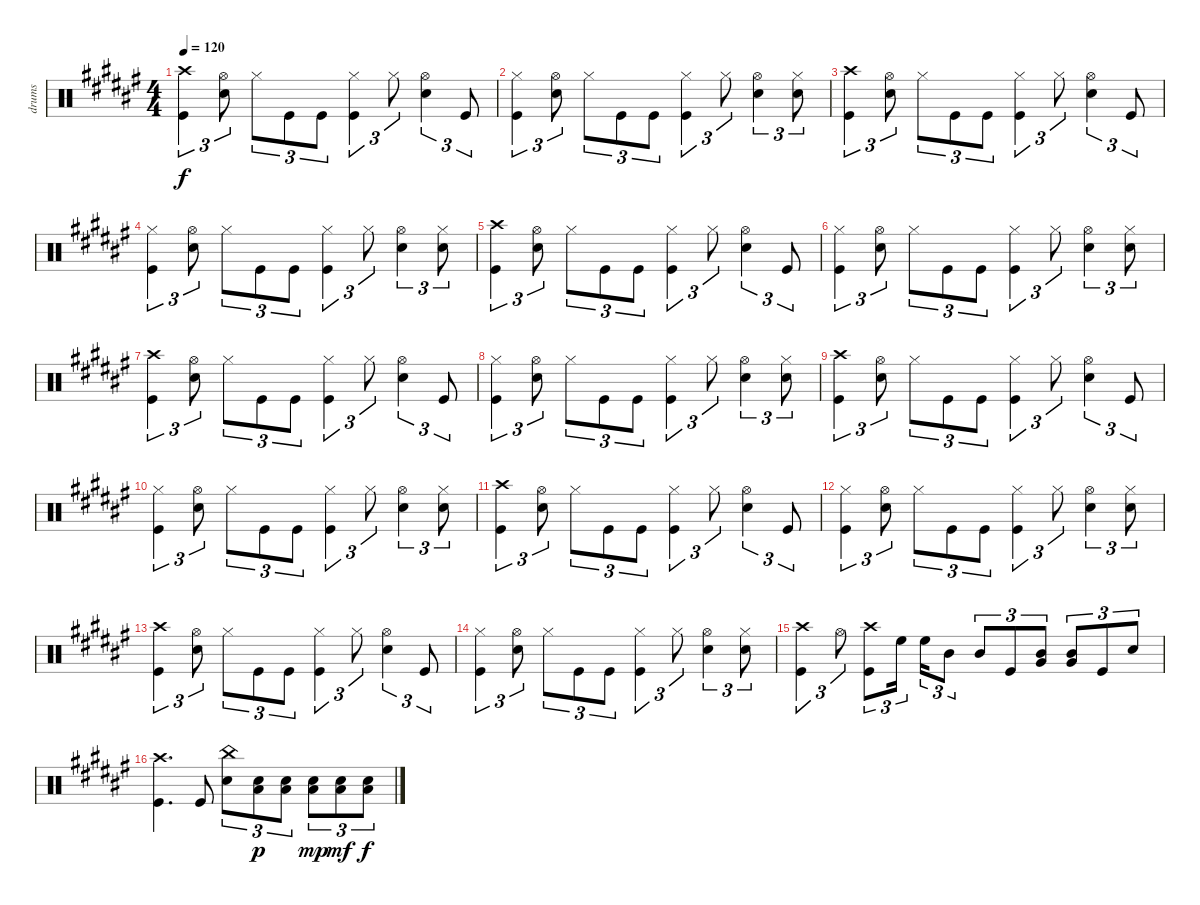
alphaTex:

\track ("drums" "drums") {instrument percussion}
\staff {score}
\articulation defaults
\ts (4 4)
\tempo 120
\clef neutral
\ks f#
("Crash high (hit)" "Kick (hit)").4{tu (3 2) dy f} ("Hi-Hat (open)" "Snare (hit) 2").8{tu (3 2)} "Hi-Hat (closed)".8{tu (3 2)} "Kick (hit)".8{tu (3 2)} "Kick (hit)".8{tu (3 2)} ("Hi-Hat (closed)" "Kick (hit)").4{tu (3 2)} "Hi-Hat (closed)".8{tu (3 2)} ("Hi-Hat (open)" "Snare (hit) 2").4{tu (3 2)} "Kick (hit)".8{tu (3 2)} |
("Hi-Hat (closed)" "Kick (hit)").4{tu (3 2)} ("Hi-Hat (open)" "Snare (hit) 2").8{tu (3 2)} "Hi-Hat (closed)".8{tu (3 2)} "Kick (hit)".8{tu (3 2)} "Kick (hit)".8{tu (3 2)} ("Hi-Hat (closed)" "Kick (hit)").4{tu (3 2)} "Hi-Hat (closed)".8{tu (3 2)} ("Hi-Hat (open)" "Snare (hit) 2").4{tu (3 2)} ("Hi-Hat (closed)" "Snare (hit) 2").8{tu (3 2)} |
("Crash high (hit)" "Kick (hit)").4{tu (3 2)} ("Hi-Hat (open)" "Snare (hit) 2").8{tu (3 2)} "Hi-Hat (closed)".8{tu (3 2)} "Kick (hit)".8{tu (3 2)} "Kick (hit)".8{tu (3 2)} ("Hi-Hat (closed)" "Kick (hit)").4{tu (3 2)} "Hi-Hat (closed)".8{tu (3 2)} ("Hi-Hat (open)" "Snare (hit) 2").4{tu (3 2)} "Kick (hit)".8{tu (3 2)} |
("Hi-Hat (closed)" "Kick (hit)").4{tu (3 2)} ("Hi-Hat (open)" "Snare (hit) 2").8{tu (3 2)} "Hi-Hat (closed)".8{tu (3 2)} "Kick (hit)".8{tu (3 2)} "Kick (hit)".8{tu (3 2)} ("Hi-Hat (closed)" "Kick (hit)").4{tu (3 2)} "Hi-Hat (closed)".8{tu (3 2)} ("Hi-Hat (open)" "Snare (hit) 2").4{tu (3 2)} ("Hi-Hat (closed)" "Snare (hit) 2").8{tu (3 2)} |
("Crash high (hit)" "Kick (hit)").4{tu (3 2)} ("Hi-Hat (open)" "Snare (hit) 2").8{tu (3 2)} "Hi-Hat (closed)".8{tu (3 2)} "Kick (hit)".8{tu (3 2)} "Kick (hit)".8{tu (3 2)} ("Hi-Hat (closed)" "Kick (hit)").4{tu (3 2)} "Hi-Hat (closed)".8{tu (3 2)} ("Hi-Hat (open)" "Snare (hit) 2").4{tu (3 2)} "Kick (hit)".8{tu (3 2)} |
("Hi-Hat (closed)" "Kick (hit)").4{tu (3 2)} ("Hi-Hat (open)" "Snare (hit) 2").8{tu (3 2)} "Hi-Hat (closed)".8{tu (3 2)} "Kick (hit)".8{tu (3 2)} "Kick (hit)".8{tu (3 2)} ("Hi-Hat (closed)" "Kick (hit)").4{tu (3 2)} "Hi-Hat (closed)".8{tu (3 2)} ("Hi-Hat (open)" "Snare (hit) 2").4{tu (3 2)} ("Hi-Hat (closed)" "Snare (hit) 2").8{tu (3 2)} |
("Crash high (hit)" "Kick (hit)").4{tu (3 2)} ("Hi-Hat (open)" "Snare (hit) 2").8{tu (3 2)} "Hi-Hat (closed)".8{tu (3 2)} "Kick (hit)".8{tu (3 2)} "Kick (hit)".8{tu (3 2)} ("Hi-Hat (closed)" "Kick (hit)").4{tu (3 2)} "Hi-Hat (closed)".8{tu (3 2)} ("Hi-Hat (open)" "Snare (hit) 2").4{tu (3 2)} "Kick (hit)".8{tu (3 2)} |
("Hi-Hat (closed)" "Kick (hit)").4{tu (3 2)} ("Hi-Hat (open)" "Snare (hit) 2").8{tu (3 2)} "Hi-Hat (closed)".8{tu (3 2)} "Kick (hit)".8{tu (3 2)} "Kick (hit)".8{tu (3 2)} ("Hi-Hat (closed)" "Kick (hit)").4{tu (3 2)} "Hi-Hat (closed)".8{tu (3 2)} ("Hi-Hat (open)" "Snare (hit) 2").4{tu (3 2)} ("Hi-Hat (closed)" "Snare (hit) 2").8{tu (3 2)} |
("Crash high (hit)" "Kick (hit)").4{tu (3 2)} ("Hi-Hat (open)" "Snare (hit) 2").8{tu (3 2)} "Hi-Hat (closed)".8{tu (3 2)} "Kick (hit)".8{tu (3 2)} "Kick (hit)".8{tu (3 2)} ("Hi-Hat (closed)" "Kick (hit)").4{tu (3 2)} "Hi-Hat (closed)".8{tu (3 2)} ("Hi-Hat (open)" "Snare (hit) 2").4{tu (3 2)} "Kick (hit)".8{tu (3 2)} |
("Hi-Hat (closed)" "Kick (hit)").4{tu (3 2)} ("Hi-Hat (open)" "Snare (hit) 2").8{tu (3 2)} "Hi-Hat (closed)".8{tu (3 2)} "Kick (hit)".8{tu (3 2)} "Kick (hit)".8{tu (3 2)} ("Hi-Hat (closed)" "Kick (hit)").4{tu (3 2)} "Hi-Hat (closed)".8{tu (3 2)} ("Hi-Hat (open)" "Snare (hit) 2").4{tu (3 2)} ("Hi-Hat (closed)" "Snare (hit) 2").8{tu (3 2)} |
("Crash high (hit)" "Kick (hit)").4{tu (3 2)} ("Hi-Hat (open)" "Snare (hit) 2").8{tu (3 2)} "Hi-Hat (closed)".8{tu (3 2)} "Kick (hit)".8{tu (3 2)} "Kick (hit)".8{tu (3 2)} ("Hi-Hat (closed)" "Kick (hit)").4{tu (3 2)} "Hi-Hat (closed)".8{tu (3 2)} ("Hi-Hat (open)" "Snare (hit) 2").4{tu (3 2)} "Kick (hit)".8{tu (3 2)} |
("Hi-Hat (closed)" "Kick (hit)").4{tu (3 2)} ("Hi-Hat (open)" "Snare (hit) 2").8{tu (3 2)} "Hi-Hat (closed)".8{tu (3 2)} "Kick (hit)".8{tu (3 2)} "Kick (hit)".8{tu (3 2)} ("Hi-Hat (closed)" "Kick (hit)").4{tu (3 2)} "Hi-Hat (closed)".8{tu (3 2)} ("Hi-Hat (open)" "Snare (hit) 2").4{tu (3 2)} ("Hi-Hat (closed)" "Snare (hit) 2").8{tu (3 2)} |
("Crash high (hit)" "Kick (hit)").4{tu (3 2)} ("Hi-Hat (open)" "Snare (hit) 2").8{tu (3 2)} "Hi-Hat (closed)".8{tu (3 2)} "Kick (hit)".8{tu (3 2)} "Kick (hit)".8{tu (3 2)} ("Hi-Hat (closed)" "Kick (hit)").4{tu (3 2)} "Hi-Hat (closed)".8{tu (3 2)} ("Hi-Hat (open)" "Snare (hit) 2").4{tu (3 2)} "Kick (hit)".8{tu (3 2)} |
("Hi-Hat (closed)" "Kick (hit)").4{tu (3 2)} ("Hi-Hat (open)" "Snare (hit) 2").8{tu (3 2)} "Hi-Hat (closed)".8{tu (3 2)} "Kick (hit)".8{tu (3 2)} "Kick (hit)".8{tu (3 2)} ("Hi-Hat (closed)" "Kick (hit)").4{tu (3 2)} "Hi-Hat (closed)".8{tu (3 2)} ("Hi-Hat (open)" "Snare (hit) 2").4{tu (3 2)} ("Hi-Hat (closed)" "Snare (hit) 2").8{tu (3 2)} |
("Crash high (hit)" "Kick (hit)").4{tu (3 2)} "Hi-Hat (open)".8{tu (3 2)} ("Crash high (hit)" "Kick (hit)").8{tu (3 2)} "High Floor Tom (hit)".16{tu (3 2) beam splitsecondary} "High Floor Tom (hit)".16{tu (3 2)} "Mid Tom (hit)".8{tu (3 2)} "Mid Tom (hit)".8{tu (3 2)} "Kick (hit)".8{tu (3 2)} ("Mid Tom (hit)" "Very Low Tom (hit)").8{tu (3 2)} ("Mid Tom (hit)" "Very Low Tom (hit)").8{tu (3 2)} "Kick (hit)".8{tu (3 2)} "Snare (hit) 2".8{tu (3 2)} |
("Crash high (hit)" "Kick (hit)").4{d} "Kick (hit)".8 ("China (hit)" "Snare (hit) 2").8{tu (3 2)} ("Low Floor Tom (hit)" "Snare (hit) 2").8{tu (3 2) dy p} ("Low Floor Tom (hit)" "Snare (hit) 2").8{tu (3 2)} ("Low Floor Tom (hit)" "Snare (hit) 2").8{tu (3 2) dy mp} ("Low Floor Tom (hit)" "Snare (hit) 2").8{tu (3 2) dy mf} ("Low Floor Tom (hit)" "Snare (hit) 2").8{tu (3 2) dy f}
